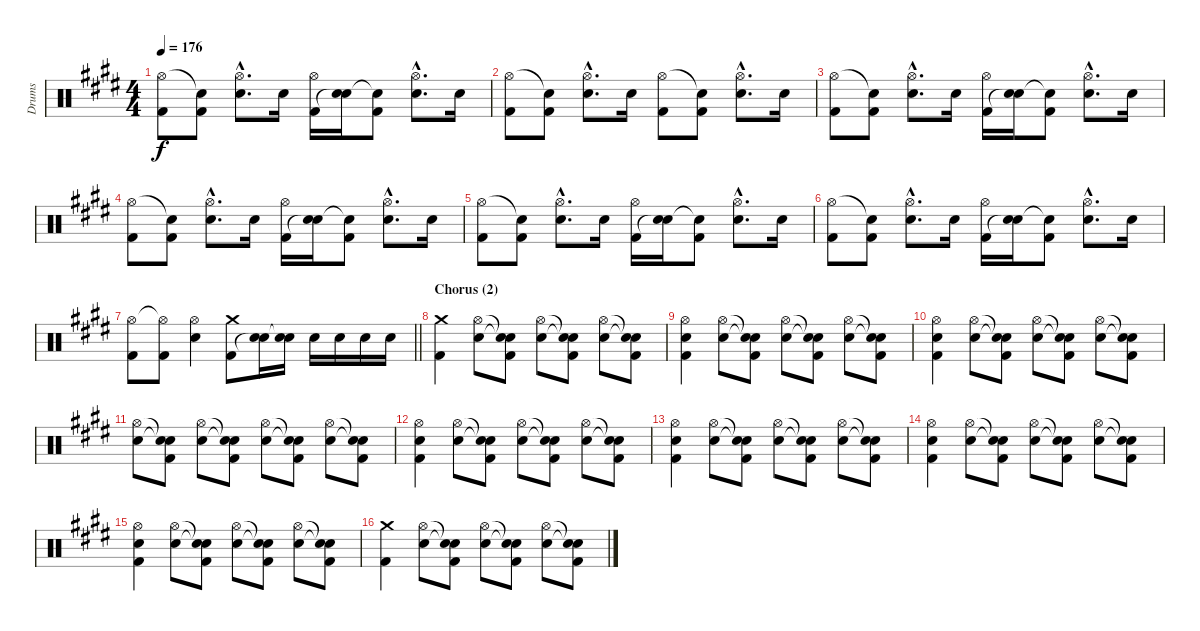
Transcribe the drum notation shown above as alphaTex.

\track ("Drums" "Drums") {instrument percussion}
\staff {score}
\articulation defaults
\ts (4 4)
\tempo 176
\clef neutral
\ks c#minor
("Hi-Hat (open)" "Kick (hit) 2").8{dy f} ("Snare (hit)"{t} "Kick (hit) 2").8 ("Hi-Hat (open)"{hac} "Electric Snare (hit)"{hac}).8{d} "Electric Snare (hit)".16 ("Hi-Hat (open)" "Kick (hit) 2").16 ("Electric Snare (hit)" "Snare (hit)"{t}).16 ("Snare (hit)"{t} "Kick (hit) 2").8 ("Hi-Hat (open)"{hac} "Electric Snare (hit)"{hac}).8{d} "Electric Snare (hit)".16 |
("Hi-Hat (open)" "Kick (hit) 2").8 ("Snare (hit)"{t} "Kick (hit) 2").8 ("Hi-Hat (open)"{hac} "Electric Snare (hit)"{hac}).8{d} "Electric Snare (hit)".16 ("Hi-Hat (open)" "Kick (hit) 2").8 ("Snare (hit)"{t} "Kick (hit) 2").8 ("Hi-Hat (open)"{hac} "Electric Snare (hit)"{hac}).8{d} "Electric Snare (hit)".16 |
("Hi-Hat (open)" "Kick (hit) 2").8 ("Snare (hit)"{t} "Kick (hit) 2").8 ("Hi-Hat (open)"{hac} "Electric Snare (hit)"{hac}).8{d} "Electric Snare (hit)".16 ("Hi-Hat (open)" "Kick (hit) 2").16 ("Electric Snare (hit)" "Snare (hit)"{t}).16 ("Snare (hit)"{t} "Kick (hit) 2").8 ("Hi-Hat (open)"{hac} "Electric Snare (hit)"{hac}).8{d} "Electric Snare (hit)".16 |
("Hi-Hat (open)" "Kick (hit) 2").8 ("Snare (hit)"{t} "Kick (hit) 2").8 ("Hi-Hat (open)"{hac} "Electric Snare (hit)"{hac}).8{d} "Electric Snare (hit)".16 ("Hi-Hat (open)" "Kick (hit) 2").16 ("Electric Snare (hit)" "Snare (hit)"{t}).16 ("Snare (hit)"{t} "Kick (hit) 2").8 ("Hi-Hat (open)"{hac} "Electric Snare (hit)"{hac}).8{d} "Electric Snare (hit)".16 |
("Hi-Hat (open)" "Kick (hit) 2").8 ("Snare (hit)"{t} "Kick (hit) 2").8 ("Hi-Hat (open)"{hac} "Electric Snare (hit)"{hac}).8{d} "Electric Snare (hit)".16 ("Hi-Hat (open)" "Kick (hit) 2").16 ("Electric Snare (hit)" "Snare (hit)"{t}).16 ("Snare (hit)"{t} "Kick (hit) 2").8 ("Hi-Hat (open)"{hac} "Electric Snare (hit)"{hac}).8{d} "Electric Snare (hit)".16 |
("Hi-Hat (open)" "Kick (hit) 2").8 ("Snare (hit)"{t} "Kick (hit) 2").8 ("Hi-Hat (open)"{hac} "Electric Snare (hit)"{hac}).8{d} "Electric Snare (hit)".16 ("Hi-Hat (open)" "Kick (hit) 2").16 ("Electric Snare (hit)" "Snare (hit)"{t}).16 ("Snare (hit)"{t} "Kick (hit) 2").8 ("Hi-Hat (open)"{hac} "Electric Snare (hit)"{hac}).8{d} "Electric Snare (hit)".16 |
\barLineRight lightlight
("Hi-Hat (open)" "Kick (hit) 2").8 ("Hi-Hat (open)"{t} "Kick (hit) 2").8 ("Hi-Hat (open)" "Electric Snare (hit)").4 ("Crash medium (hit)" "Kick (hit) 2").8 ("Electric Snare (hit)" "Snare (hit)"{t}).16 ("Electric Snare (hit)" "Snare (hit)"{t}).16 "Electric Snare (hit)".16 "Electric Snare (hit)".16 "Electric Snare (hit)".16 "Electric Snare (hit)".16 |
\section ("" "Chorus (2)")
("Crash medium (hit)" "Kick (hit) 2").4 ("Hi-Hat (open)" "Electric Snare (hit)").8 ("Snare (hit)"{t} "Snare (hit)"{t} "Kick (hit) 2").8 ("Hi-Hat (open)" "Electric Snare (hit)").8 ("Snare (hit)"{t} "Snare (hit)"{t} "Kick (hit) 2").8 ("Hi-Hat (open)" "Electric Snare (hit)").8 ("Snare (hit)"{t} "Snare (hit)"{t} "Kick (hit) 2").8 |
("Hi-Hat (open)" "Electric Snare (hit)" "Kick (hit) 2").4 ("Hi-Hat (open)" "Electric Snare (hit)").8 ("Snare (hit)"{t} "Snare (hit)"{t} "Kick (hit) 2").8 ("Hi-Hat (open)" "Electric Snare (hit)").8 ("Snare (hit)"{t} "Snare (hit)"{t} "Kick (hit) 2").8 ("Hi-Hat (open)" "Electric Snare (hit)").8 ("Snare (hit)"{t} "Snare (hit)"{t} "Kick (hit) 2").8 |
("Hi-Hat (open)" "Electric Snare (hit)" "Kick (hit) 2").4 ("Hi-Hat (open)" "Electric Snare (hit)").8 ("Snare (hit)"{t} "Snare (hit)"{t} "Kick (hit) 2").8 ("Hi-Hat (open)" "Electric Snare (hit)").8 ("Snare (hit)"{t} "Snare (hit)"{t} "Kick (hit) 2").8 ("Hi-Hat (open)" "Electric Snare (hit)").8 ("Snare (hit)"{t} "Snare (hit)"{t} "Kick (hit) 2").8 |
("Hi-Hat (open)" "Electric Snare (hit)").8 ("Snare (hit)"{t} "Snare (hit)"{t} "Kick (hit) 2").8 ("Hi-Hat (open)" "Electric Snare (hit)").8 ("Snare (hit)"{t} "Snare (hit)"{t} "Kick (hit) 2").8 ("Hi-Hat (open)" "Electric Snare (hit)").8 ("Snare (hit)"{t} "Snare (hit)"{t} "Kick (hit) 2").8 ("Hi-Hat (open)" "Electric Snare (hit)").8 ("Snare (hit)"{t} "Snare (hit)"{t} "Kick (hit) 2").8 |
("Hi-Hat (open)" "Electric Snare (hit)" "Kick (hit) 2").4 ("Hi-Hat (open)" "Electric Snare (hit)").8 ("Snare (hit)"{t} "Snare (hit)"{t} "Kick (hit) 2").8 ("Hi-Hat (open)" "Electric Snare (hit)").8 ("Snare (hit)"{t} "Snare (hit)"{t} "Kick (hit) 2").8 ("Hi-Hat (open)" "Electric Snare (hit)").8 ("Snare (hit)"{t} "Snare (hit)"{t} "Kick (hit) 2").8 |
("Hi-Hat (open)" "Electric Snare (hit)" "Kick (hit) 2").4 ("Hi-Hat (open)" "Electric Snare (hit)").8 ("Snare (hit)"{t} "Snare (hit)"{t} "Kick (hit) 2").8 ("Hi-Hat (open)" "Electric Snare (hit)").8 ("Snare (hit)"{t} "Snare (hit)"{t} "Kick (hit) 2").8 ("Hi-Hat (open)" "Electric Snare (hit)").8 ("Snare (hit)"{t} "Snare (hit)"{t} "Kick (hit) 2").8 |
("Hi-Hat (open)" "Electric Snare (hit)" "Kick (hit) 2").4 ("Hi-Hat (open)" "Electric Snare (hit)").8 ("Snare (hit)"{t} "Snare (hit)"{t} "Kick (hit) 2").8 ("Hi-Hat (open)" "Electric Snare (hit)").8 ("Snare (hit)"{t} "Snare (hit)"{t} "Kick (hit) 2").8 ("Hi-Hat (open)" "Electric Snare (hit)").8 ("Snare (hit)"{t} "Snare (hit)"{t} "Kick (hit) 2").8 |
("Hi-Hat (open)" "Electric Snare (hit)" "Kick (hit) 2").4 ("Hi-Hat (open)" "Electric Snare (hit)").8 ("Snare (hit)"{t} "Snare (hit)"{t} "Kick (hit) 2").8 ("Hi-Hat (open)" "Electric Snare (hit)").8 ("Snare (hit)"{t} "Snare (hit)"{t} "Kick (hit) 2").8 ("Hi-Hat (open)" "Electric Snare (hit)").8 ("Snare (hit)"{t} "Snare (hit)"{t} "Kick (hit) 2").8 |
("Crash medium (hit)" "Kick (hit) 2").4 ("Hi-Hat (open)" "Electric Snare (hit)").8 ("Snare (hit)"{t} "Snare (hit)"{t} "Kick (hit) 2").8 ("Hi-Hat (open)" "Electric Snare (hit)").8 ("Snare (hit)"{t} "Snare (hit)"{t} "Kick (hit) 2").8 ("Hi-Hat (open)" "Electric Snare (hit)").8 ("Snare (hit)"{t} "Snare (hit)"{t} "Kick (hit) 2").8
